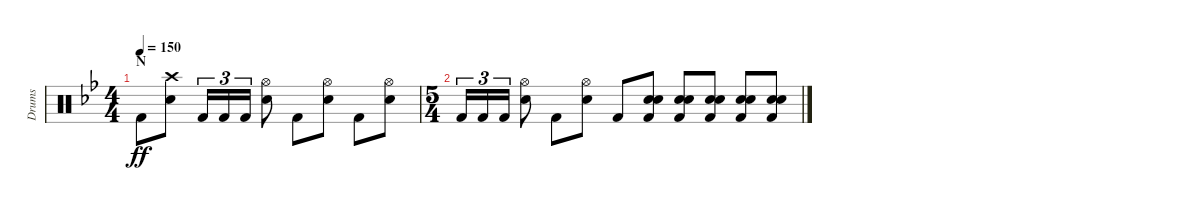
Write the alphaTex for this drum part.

\track ("Drums" "Drums") {instrument percussion}
\staff {score}
\articulation defaults
\ts (4 4)
\section ("" "N")
\tempo 150
\clef neutral
\ks gminor "Kick (hit) 2".8{dy ff}
("Crash high (hit)" "Electric Snare (hit)").8 "Kick (hit) 2".16{tu (3 2)} "Kick (hit) 2".16{tu (3 2)} "Kick (hit) 2".16{tu (3 2)} ("Hi-Hat (open)" "Electric Snare (hit)").8 "Kick (hit) 2".8 ("Hi-Hat (open)" "Electric Snare (hit)").8 "Kick (hit) 2".8 ("Hi-Hat (open)" "Electric Snare (hit)").8 |
\ts (5 4)
"Kick (hit) 2".16{tu (3 2)} "Kick (hit) 2".16{tu (3 2)} "Kick (hit) 2".16{tu (3 2)} ("Hi-Hat (open)" "Electric Snare (hit)").8 "Kick (hit) 2".8 ("Hi-Hat (open)" "Electric Snare (hit)").8 "Kick (hit) 2".8 ("Electric Snare (hit)" "Electric Snare (hit)" "Kick (hit) 2").8 ("Electric Snare (hit)" "Electric Snare (hit)" "Kick (hit) 2").8 ("Electric Snare (hit)" "Electric Snare (hit)" "Kick (hit) 2").8 ("Electric Snare (hit)" "Electric Snare (hit)" "Kick (hit) 2").8 ("Electric Snare (hit)" "Electric Snare (hit)" "Kick (hit) 2").8
